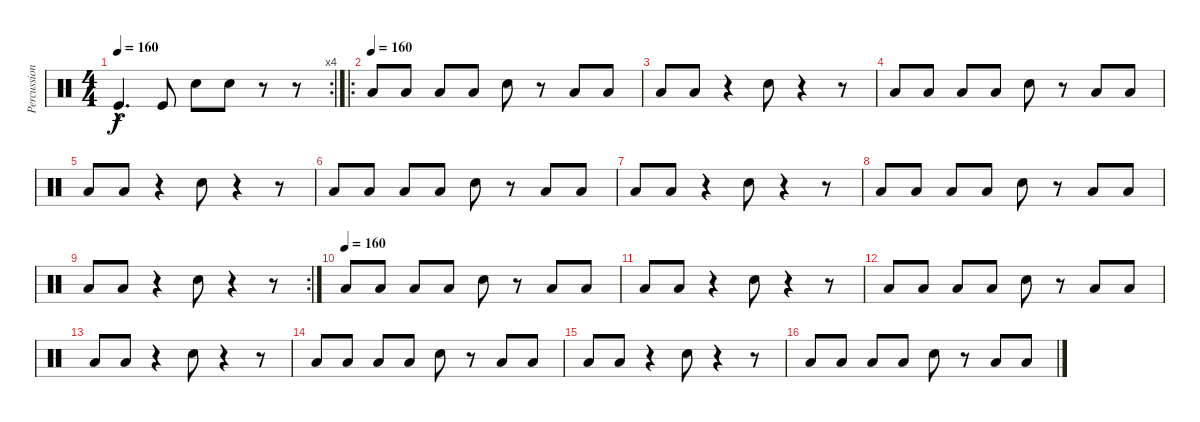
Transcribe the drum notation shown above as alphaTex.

\track ("Percussion" "Percussion") {instrument percussion}
\staff {score}
\articulation defaults
\rc 4
\ts (4 4)
\tempo 160
\clef neutral
\ks c "Kick (hit)"{hac}.4{d dy f} "Kick (hit)".8 "Electric Snare (hit)".8 "Snare (hit) 2".8
r.8 r.8 |
\ro
\tempo (160)
"Low Floor Tom (hit)".8 "Low Floor Tom (hit)".8 "Low Floor Tom (hit)".8 "Low Floor Tom (hit)".8 "Electric Snare (hit)".8 r.8 "Low Floor Tom (hit)".8 "Low Floor Tom (hit)".8 |
"Low Floor Tom (hit)".8 "Low Floor Tom (hit)".8 r.4 "Electric Snare (hit)".8 r.4 r.8 |
"Low Floor Tom (hit)".8 "Low Floor Tom (hit)".8 "Low Floor Tom (hit)".8 "Low Floor Tom (hit)".8 "Electric Snare (hit)".8 r.8 "Low Floor Tom (hit)".8 "Low Floor Tom (hit)".8 |
"Low Floor Tom (hit)".8 "Low Floor Tom (hit)".8 r.4 "Electric Snare (hit)".8 r.4 r.8 |
"Low Floor Tom (hit)".8 "Low Floor Tom (hit)".8 "Low Floor Tom (hit)".8 "Low Floor Tom (hit)".8 "Electric Snare (hit)".8 r.8 "Low Floor Tom (hit)".8 "Low Floor Tom (hit)".8 |
"Low Floor Tom (hit)".8 "Low Floor Tom (hit)".8 r.4 "Electric Snare (hit)".8 r.4 r.8 |
"Low Floor Tom (hit)".8 "Low Floor Tom (hit)".8 "Low Floor Tom (hit)".8 "Low Floor Tom (hit)".8 "Electric Snare (hit)".8 r.8 "Low Floor Tom (hit)".8 "Low Floor Tom (hit)".8 |
\rc 2 "Low Floor Tom (hit)".8 "Low Floor Tom (hit)".8
r.4 "Electric Snare (hit)".8 r.4 r.8 |
\tempo (160)
"Low Floor Tom (hit)".8 "Low Floor Tom (hit)".8 "Low Floor Tom (hit)".8 "Low Floor Tom (hit)".8 "Electric Snare (hit)".8 r.8 "Low Floor Tom (hit)".8 "Low Floor Tom (hit)".8 |
"Low Floor Tom (hit)".8 "Low Floor Tom (hit)".8 r.4 "Electric Snare (hit)".8 r.4 r.8 |
"Low Floor Tom (hit)".8 "Low Floor Tom (hit)".8 "Low Floor Tom (hit)".8 "Low Floor Tom (hit)".8 "Electric Snare (hit)".8 r.8 "Low Floor Tom (hit)".8 "Low Floor Tom (hit)".8 |
"Low Floor Tom (hit)".8 "Low Floor Tom (hit)".8 r.4 "Electric Snare (hit)".8 r.4 r.8 |
"Low Floor Tom (hit)".8 "Low Floor Tom (hit)".8 "Low Floor Tom (hit)".8 "Low Floor Tom (hit)".8 "Electric Snare (hit)".8 r.8 "Low Floor Tom (hit)".8 "Low Floor Tom (hit)".8 |
"Low Floor Tom (hit)".8 "Low Floor Tom (hit)".8 r.4 "Electric Snare (hit)".8 r.4 r.8 |
"Low Floor Tom (hit)".8 "Low Floor Tom (hit)".8 "Low Floor Tom (hit)".8 "Low Floor Tom (hit)".8 "Electric Snare (hit)".8 r.8 "Low Floor Tom (hit)".8 "Low Floor Tom (hit)".8
